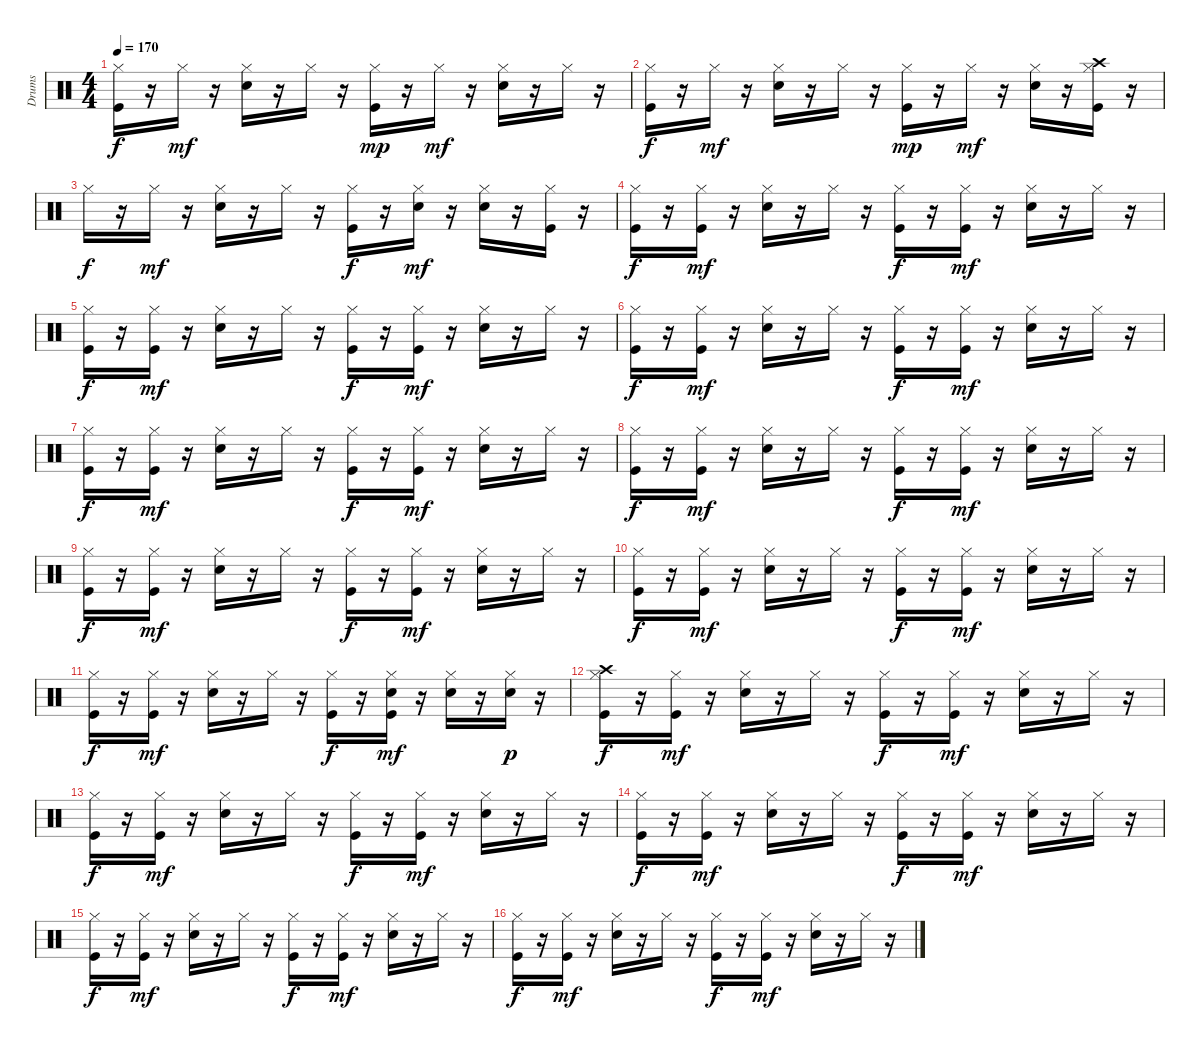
\track ("Drums" "Drums") {instrument percussion}
\staff {score}
\articulation defaults
\ts (4 4)
\tempo 170
\clef neutral
\ks c
("Hi-Hat (closed)" "Kick (hit)").16{dy f} r.16 "Hi-Hat (closed)".16{dy mf} r.16 ("Hi-Hat (closed)" "Electric Snare (hit)").16 r.16 "Hi-Hat (closed)".16 r.16 ("Hi-Hat (closed)" "Kick (hit)").16{dy mp} r.16 "Hi-Hat (closed)".16{dy mf} r.16 ("Hi-Hat (closed)" "Electric Snare (hit)").16 r.16 "Hi-Hat (closed)".16 r.16 |
("Hi-Hat (closed)" "Kick (hit)").16{dy f} r.16 "Hi-Hat (closed)".16{dy mf} r.16 ("Hi-Hat (closed)" "Electric Snare (hit)").16 r.16 "Hi-Hat (closed)".16 r.16 ("Hi-Hat (closed)" "Kick (hit)").16{dy mp} r.16 "Hi-Hat (closed)".16{dy mf} r.16 ("Hi-Hat (closed)" "Electric Snare (hit)").16 r.16 ("Hi-Hat (closed)" "Crash high (hit)" "Kick (hit)").16 r.16 |
"Hi-Hat (closed)".16{dy f} r.16 "Hi-Hat (closed)".16{dy mf} r.16 ("Hi-Hat (closed)" "Electric Snare (hit)").16 r.16 "Hi-Hat (closed)".16 r.16 ("Hi-Hat (closed)" "Kick (hit)").16{dy f} r.16 ("Hi-Hat (closed)" "Electric Snare (hit)").16{dy mf} r.16 ("Hi-Hat (closed)" "Electric Snare (hit)").16 r.16 ("Hi-Hat (closed)" "Kick (hit)").16 r.16 |
("Hi-Hat (closed)" "Kick (hit)").16{dy f} r.16 ("Hi-Hat (closed)" "Kick (hit)").16{dy mf} r.16 ("Hi-Hat (closed)" "Electric Snare (hit)").16 r.16 "Hi-Hat (closed)".16 r.16 ("Hi-Hat (closed)" "Kick (hit)").16{dy f} r.16 ("Hi-Hat (closed)" "Kick (hit)").16{dy mf} r.16 ("Hi-Hat (closed)" "Electric Snare (hit)").16 r.16 "Hi-Hat (closed)".16 r.16 |
("Hi-Hat (closed)" "Kick (hit)").16{dy f} r.16 ("Hi-Hat (closed)" "Kick (hit)").16{dy mf} r.16 ("Hi-Hat (closed)" "Electric Snare (hit)").16 r.16 "Hi-Hat (closed)".16 r.16 ("Hi-Hat (closed)" "Kick (hit)").16{dy f} r.16 ("Hi-Hat (closed)" "Kick (hit)").16{dy mf} r.16 ("Hi-Hat (closed)" "Electric Snare (hit)").16 r.16 "Hi-Hat (closed)".16 r.16 |
("Hi-Hat (closed)" "Kick (hit)").16{dy f} r.16 ("Hi-Hat (closed)" "Kick (hit)").16{dy mf} r.16 ("Hi-Hat (closed)" "Electric Snare (hit)").16 r.16 "Hi-Hat (closed)".16 r.16 ("Hi-Hat (closed)" "Kick (hit)").16{dy f} r.16 ("Hi-Hat (closed)" "Kick (hit)").16{dy mf} r.16 ("Hi-Hat (closed)" "Electric Snare (hit)").16 r.16 "Hi-Hat (closed)".16 r.16 |
("Hi-Hat (closed)" "Kick (hit)").16{dy f} r.16 ("Hi-Hat (closed)" "Kick (hit)").16{dy mf} r.16 ("Hi-Hat (closed)" "Electric Snare (hit)").16 r.16 "Hi-Hat (closed)".16 r.16 ("Hi-Hat (closed)" "Kick (hit)").16{dy f} r.16 ("Hi-Hat (closed)" "Kick (hit)").16{dy mf} r.16 ("Hi-Hat (closed)" "Electric Snare (hit)").16 r.16 "Hi-Hat (closed)".16 r.16 |
("Hi-Hat (closed)" "Kick (hit)").16{dy f} r.16 ("Hi-Hat (closed)" "Kick (hit)").16{dy mf} r.16 ("Hi-Hat (closed)" "Electric Snare (hit)").16 r.16 "Hi-Hat (closed)".16 r.16 ("Hi-Hat (closed)" "Kick (hit)").16{dy f} r.16 ("Hi-Hat (closed)" "Kick (hit)").16{dy mf} r.16 ("Hi-Hat (closed)" "Electric Snare (hit)").16 r.16 "Hi-Hat (closed)".16 r.16 |
("Hi-Hat (closed)" "Kick (hit)").16{dy f} r.16 ("Hi-Hat (closed)" "Kick (hit)").16{dy mf} r.16 ("Hi-Hat (closed)" "Electric Snare (hit)").16 r.16 "Hi-Hat (closed)".16 r.16 ("Hi-Hat (closed)" "Kick (hit)").16{dy f} r.16 ("Hi-Hat (closed)" "Kick (hit)").16{dy mf} r.16 ("Hi-Hat (closed)" "Electric Snare (hit)").16 r.16 "Hi-Hat (closed)".16 r.16 |
("Hi-Hat (closed)" "Kick (hit)").16{dy f} r.16 ("Hi-Hat (closed)" "Kick (hit)").16{dy mf} r.16 ("Hi-Hat (closed)" "Electric Snare (hit)").16 r.16 "Hi-Hat (closed)".16 r.16 ("Hi-Hat (closed)" "Kick (hit)").16{dy f} r.16 ("Hi-Hat (closed)" "Kick (hit)").16{dy mf} r.16 ("Hi-Hat (closed)" "Electric Snare (hit)").16 r.16 "Hi-Hat (closed)".16 r.16 |
("Hi-Hat (closed)" "Kick (hit)").16{dy f} r.16 ("Hi-Hat (closed)" "Kick (hit)").16{dy mf} r.16 ("Hi-Hat (closed)" "Electric Snare (hit)").16 r.16 "Hi-Hat (closed)".16 r.16 ("Hi-Hat (closed)" "Kick (hit)").16{dy f} r.16 ("Hi-Hat (closed)" "Kick (hit)" "Electric Snare (hit)").16{dy mf} r.16 ("Hi-Hat (closed)" "Electric Snare (hit)").16 r.16 ("Hi-Hat (closed)" "Electric Snare (hit)").16{dy p} r.16 |
("Hi-Hat (closed)" "Crash high (hit)" "Kick (hit)").16{dy f} r.16 ("Hi-Hat (closed)" "Kick (hit)").16{dy mf} r.16 ("Hi-Hat (closed)" "Electric Snare (hit)").16 r.16 "Hi-Hat (closed)".16 r.16 ("Hi-Hat (closed)" "Kick (hit)").16{dy f} r.16 ("Hi-Hat (closed)" "Kick (hit)").16{dy mf} r.16 ("Hi-Hat (closed)" "Electric Snare (hit)").16 r.16 "Hi-Hat (closed)".16 r.16 |
("Hi-Hat (closed)" "Kick (hit)").16{dy f} r.16 ("Hi-Hat (closed)" "Kick (hit)").16{dy mf} r.16 ("Hi-Hat (closed)" "Electric Snare (hit)").16 r.16 "Hi-Hat (closed)".16 r.16 ("Hi-Hat (closed)" "Kick (hit)").16{dy f} r.16 ("Hi-Hat (closed)" "Kick (hit)").16{dy mf} r.16 ("Hi-Hat (closed)" "Electric Snare (hit)").16 r.16 "Hi-Hat (closed)".16 r.16 |
("Hi-Hat (closed)" "Kick (hit)").16{dy f} r.16 ("Hi-Hat (closed)" "Kick (hit)").16{dy mf} r.16 ("Hi-Hat (closed)" "Electric Snare (hit)").16 r.16 "Hi-Hat (closed)".16 r.16 ("Hi-Hat (closed)" "Kick (hit)").16{dy f} r.16 ("Hi-Hat (closed)" "Kick (hit)").16{dy mf} r.16 ("Hi-Hat (closed)" "Electric Snare (hit)").16 r.16 "Hi-Hat (closed)".16 r.16 |
("Hi-Hat (closed)" "Kick (hit)").16{dy f} r.16 ("Hi-Hat (closed)" "Kick (hit)").16{dy mf} r.16 ("Hi-Hat (closed)" "Electric Snare (hit)").16 r.16 "Hi-Hat (closed)".16 r.16 ("Hi-Hat (closed)" "Kick (hit)").16{dy f} r.16 ("Hi-Hat (closed)" "Kick (hit)").16{dy mf} r.16 ("Hi-Hat (closed)" "Electric Snare (hit)").16 r.16 "Hi-Hat (closed)".16 r.16 |
("Hi-Hat (closed)" "Kick (hit)").16{dy f} r.16 ("Hi-Hat (closed)" "Kick (hit)").16{dy mf} r.16 ("Hi-Hat (closed)" "Electric Snare (hit)").16 r.16 "Hi-Hat (closed)".16 r.16 ("Hi-Hat (closed)" "Kick (hit)").16{dy f} r.16 ("Hi-Hat (closed)" "Kick (hit)").16{dy mf} r.16 ("Hi-Hat (closed)" "Electric Snare (hit)").16 r.16 "Hi-Hat (closed)".16 r.16
